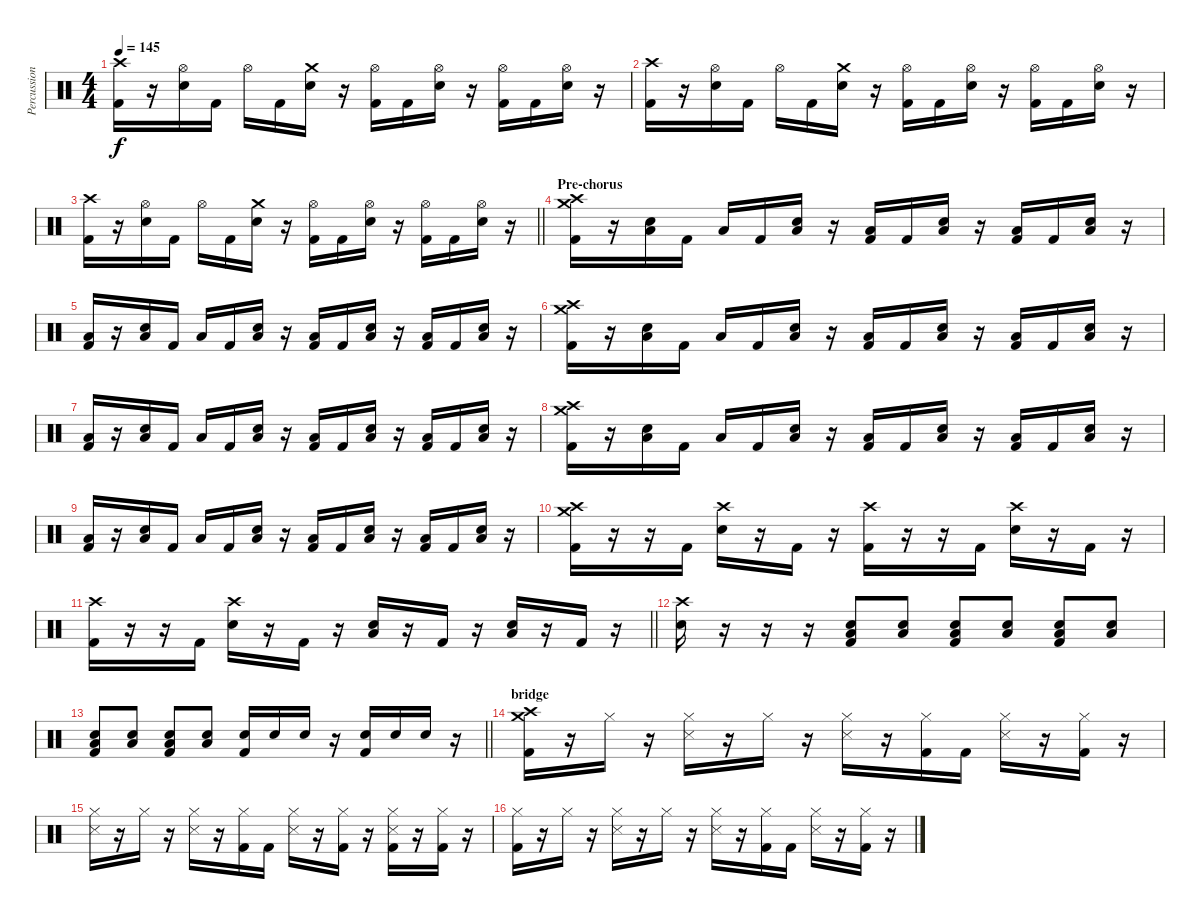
\track ("Percussion" "Percussion") {instrument percussion}
\staff {score}
\articulation defaults
\ts (4 4)
\tempo 145
\clef neutral
\ks c
("Crash high (hit)" "Kick (hit) 2").16{dy f} r.16 ("Hi-Hat (open)" "Electric Snare (hit)").16 "Kick (hit) 2".16 "Hi-Hat (open)".16 "Kick (hit) 2".16 ("Crash medium (hit)" "Electric Snare (hit)").16 r.16 ("Hi-Hat (open)" "Kick (hit) 2").16 "Kick (hit) 2".16 ("Hi-Hat (open)" "Electric Snare (hit)").16 r.16 ("Hi-Hat (open)" "Kick (hit) 2").16 "Kick (hit) 2".16 ("Hi-Hat (open)" "Electric Snare (hit)").16 r.16 |
("Crash high (hit)" "Kick (hit) 2").16 r.16 ("Hi-Hat (open)" "Electric Snare (hit)").16 "Kick (hit) 2".16 "Hi-Hat (open)".16 "Kick (hit) 2".16 ("Crash medium (hit)" "Electric Snare (hit)").16 r.16 ("Hi-Hat (open)" "Kick (hit) 2").16 "Kick (hit) 2".16 ("Hi-Hat (open)" "Electric Snare (hit)").16 r.16 ("Hi-Hat (open)" "Kick (hit) 2").16 "Kick (hit) 2".16 ("Hi-Hat (open)" "Electric Snare (hit)").16 r.16 |
\barLineRight lightlight
("Crash high (hit)" "Kick (hit) 2").16 r.16 ("Hi-Hat (open)" "Electric Snare (hit)").16 "Kick (hit) 2".16 "Hi-Hat (open)".16 "Kick (hit) 2".16 ("Crash medium (hit)" "Electric Snare (hit)").16 r.16 ("Hi-Hat (open)" "Kick (hit) 2").16 "Kick (hit) 2".16 ("Hi-Hat (open)" "Electric Snare (hit)").16 r.16 ("Hi-Hat (open)" "Kick (hit) 2").16 "Kick (hit) 2".16 ("Hi-Hat (open)" "Electric Snare (hit)").16 r.16 |
\section ("" "Pre-chorus")
("Crash high (hit)" "Crash medium (hit)" "Kick (hit) 2").16 r.16 ("Electric Snare (hit)" "Low Floor Tom (hit)").16 "Kick (hit) 2".16 "Low Floor Tom (hit)".16 "Kick (hit) 2".16 ("Electric Snare (hit)" "Low Floor Tom (hit)").16 r.16 ("Low Floor Tom (hit)" "Kick (hit) 2").16 "Kick (hit) 2".16 ("Electric Snare (hit)" "Low Floor Tom (hit)").16 r.16 ("Low Floor Tom (hit)" "Kick (hit) 2").16 "Kick (hit) 2".16 ("Electric Snare (hit)" "Low Floor Tom (hit)").16 r.16 |
("Low Floor Tom (hit)" "Kick (hit) 2").16 r.16 ("Electric Snare (hit)" "Low Floor Tom (hit)").16 "Kick (hit) 2".16 "Low Floor Tom (hit)".16 "Kick (hit) 2".16 ("Electric Snare (hit)" "Low Floor Tom (hit)").16 r.16 ("Low Floor Tom (hit)" "Kick (hit) 2").16 "Kick (hit) 2".16 ("Electric Snare (hit)" "Low Floor Tom (hit)").16 r.16 ("Low Floor Tom (hit)" "Kick (hit) 2").16 "Kick (hit) 2".16 ("Electric Snare (hit)" "Low Floor Tom (hit)").16 r.16 |
("Crash high (hit)" "Crash medium (hit)" "Kick (hit) 2").16 r.16 ("Electric Snare (hit)" "Low Floor Tom (hit)").16 "Kick (hit) 2".16 "Low Floor Tom (hit)".16 "Kick (hit) 2".16 ("Electric Snare (hit)" "Low Floor Tom (hit)").16 r.16 ("Low Floor Tom (hit)" "Kick (hit) 2").16 "Kick (hit) 2".16 ("Electric Snare (hit)" "Low Floor Tom (hit)").16 r.16 ("Low Floor Tom (hit)" "Kick (hit) 2").16 "Kick (hit) 2".16 ("Electric Snare (hit)" "Low Floor Tom (hit)").16 r.16 |
("Low Floor Tom (hit)" "Kick (hit) 2").16 r.16 ("Electric Snare (hit)" "Low Floor Tom (hit)").16 "Kick (hit) 2".16 "Low Floor Tom (hit)".16 "Kick (hit) 2".16 ("Electric Snare (hit)" "Low Floor Tom (hit)").16 r.16 ("Low Floor Tom (hit)" "Kick (hit) 2").16 "Kick (hit) 2".16 ("Electric Snare (hit)" "Low Floor Tom (hit)").16 r.16 ("Low Floor Tom (hit)" "Kick (hit) 2").16 "Kick (hit) 2".16 ("Electric Snare (hit)" "Low Floor Tom (hit)").16 r.16 |
("Crash high (hit)" "Crash medium (hit)" "Kick (hit) 2").16 r.16 ("Electric Snare (hit)" "Low Floor Tom (hit)").16 "Kick (hit) 2".16 "Low Floor Tom (hit)".16 "Kick (hit) 2".16 ("Electric Snare (hit)" "Low Floor Tom (hit)").16 r.16 ("Low Floor Tom (hit)" "Kick (hit) 2").16 "Kick (hit) 2".16 ("Electric Snare (hit)" "Low Floor Tom (hit)").16 r.16 ("Low Floor Tom (hit)" "Kick (hit) 2").16 "Kick (hit) 2".16 ("Electric Snare (hit)" "Low Floor Tom (hit)").16 r.16 |
("Low Floor Tom (hit)" "Kick (hit) 2").16 r.16 ("Electric Snare (hit)" "Low Floor Tom (hit)").16 "Kick (hit) 2".16 "Low Floor Tom (hit)".16 "Kick (hit) 2".16 ("Electric Snare (hit)" "Low Floor Tom (hit)").16 r.16 ("Low Floor Tom (hit)" "Kick (hit) 2").16 "Kick (hit) 2".16 ("Electric Snare (hit)" "Low Floor Tom (hit)").16 r.16 ("Low Floor Tom (hit)" "Kick (hit) 2").16 "Kick (hit) 2".16 ("Electric Snare (hit)" "Low Floor Tom (hit)").16 r.16 |
("Crash medium (hit)" "Crash high (hit)" "Kick (hit) 2").16 r.16 r.16 "Kick (hit) 2".16 ("Crash high (hit)" "Electric Snare (hit)").16 r.16 "Kick (hit) 2".16 r.16 ("Crash high (hit)" "Kick (hit) 2").16 r.16 r.16 "Kick (hit) 2".16 ("Crash high (hit)" "Electric Snare (hit)").16 r.16 "Kick (hit) 2".16 r.16 |
\barLineRight lightlight
("Crash high (hit)" "Kick (hit) 2").16 r.16 r.16 "Kick (hit) 2".16 ("Crash high (hit)" "Electric Snare (hit)").16 r.16 "Kick (hit) 2".16 r.16 ("Electric Snare (hit)" "Low Floor Tom (hit)").16 r.16 "Kick (hit) 2".16 r.16 ("Electric Snare (hit)" "Low Floor Tom (hit)").16 r.16 "Kick (hit) 2".16 r.16 |
("Crash high (hit)" "Electric Snare (hit)").16 r.16 r.16 r.16 ("Electric Snare (hit)" "Low Floor Tom (hit)" "Kick (hit) 2").8 ("Electric Snare (hit)" "Low Floor Tom (hit)").8 ("Electric Snare (hit)" "Low Floor Tom (hit)" "Kick (hit) 2").8 ("Electric Snare (hit)" "Low Floor Tom (hit)").8 ("Electric Snare (hit)" "Low Floor Tom (hit)" "Kick (hit) 2").8 ("Electric Snare (hit)" "Low Floor Tom (hit)").8 |
\barLineRight lightlight
("Electric Snare (hit)" "Low Floor Tom (hit)" "Kick (hit) 2").8 ("Electric Snare (hit)" "Low Floor Tom (hit)").8 ("Electric Snare (hit)" "Low Floor Tom (hit)" "Kick (hit) 2").8 ("Electric Snare (hit)" "Low Floor Tom (hit)").8 ("Electric Snare (hit)" "Kick (hit) 2").16 "Electric Snare (hit)".16 "Electric Snare (hit)".16 r.16 ("Electric Snare (hit)" "Kick (hit) 2").16 "Electric Snare (hit)".16 "Electric Snare (hit)".16 r.16 |
\section ("" "bridge")
("Crash medium (hit)" "Crash high (hit)" "Kick (hit) 2").16 r.16 "Hi-Hat (closed)".16 r.16 ("Hi-Hat (closed)" "Metronome (hit)").16 r.16 "Hi-Hat (closed)".16 r.16 ("Hi-Hat (closed)" "Metronome (hit)").16 r.16 ("Hi-Hat (closed)" "Kick (hit) 2").16 "Kick (hit) 2".16 ("Hi-Hat (closed)" "Metronome (hit)").16 r.16 ("Hi-Hat (closed)" "Kick (hit) 2").16 r.16 |
("Hi-Hat (closed)" "Metronome (hit)").16 r.16 "Hi-Hat (closed)".16 r.16 ("Hi-Hat (closed)" "Metronome (hit)").16 r.16 ("Hi-Hat (closed)" "Kick (hit) 2").16 "Kick (hit) 2".16 ("Hi-Hat (closed)" "Metronome (hit)").16 r.16 ("Hi-Hat (closed)" "Kick (hit) 2").16 r.16 ("Hi-Hat (closed)" "Metronome (hit)" "Kick (hit) 2").16 r.16 ("Hi-Hat (closed)" "Kick (hit) 2").16 r.16 |
("Hi-Hat (closed)" "Kick (hit) 2").16 r.16 "Hi-Hat (closed)".16 r.16 ("Hi-Hat (closed)" "Metronome (hit)").16 r.16 "Hi-Hat (closed)".16 r.16 ("Hi-Hat (closed)" "Metronome (hit)").16 r.16 ("Hi-Hat (closed)" "Kick (hit) 2").16 "Kick (hit) 2".16 ("Hi-Hat (closed)" "Metronome (hit)").16 r.16 ("Hi-Hat (closed)" "Kick (hit) 2").16 r.16
